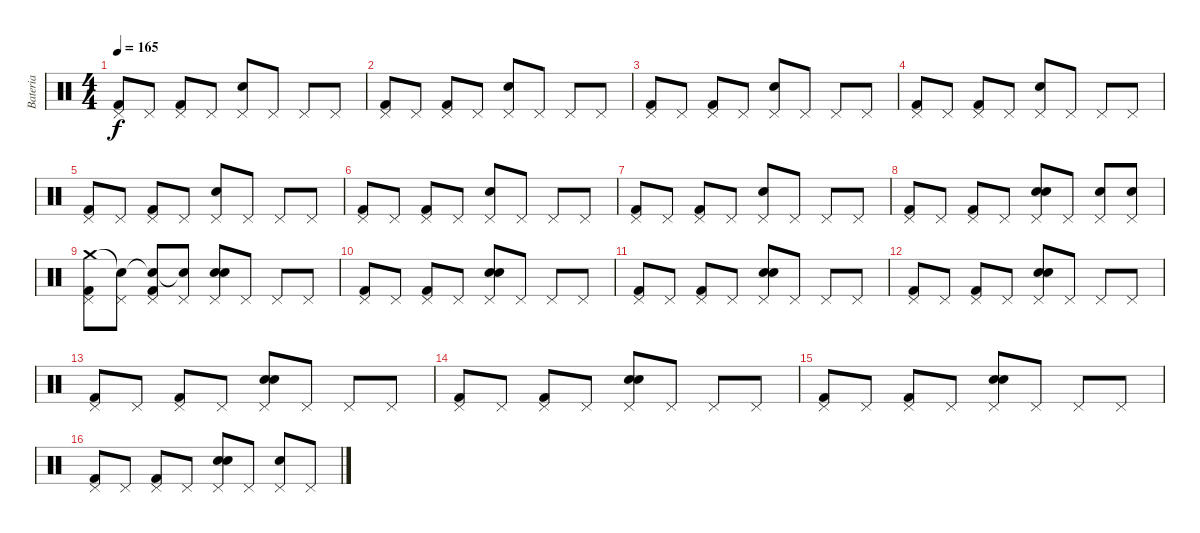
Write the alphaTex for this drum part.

\track ("Bateria" "Bateria") {instrument percussion}
\staff {score}
\articulation defaults
\ts (4 4)
\tempo 165
\clef neutral
\ks c
("Pedal Hi-Hat (hit)" "Kick (hit) 2").8{dy f} "Pedal Hi-Hat (hit)".8 ("Pedal Hi-Hat (hit)" "Kick (hit) 2").8 "Pedal Hi-Hat (hit)".8 ("Pedal Hi-Hat (hit)" "Electric Snare (hit)").8 "Pedal Hi-Hat (hit)".8 "Pedal Hi-Hat (hit)".8 "Pedal Hi-Hat (hit)".8 |
("Pedal Hi-Hat (hit)" "Kick (hit) 2").8 "Pedal Hi-Hat (hit)".8 ("Pedal Hi-Hat (hit)" "Kick (hit) 2").8 "Pedal Hi-Hat (hit)".8 ("Pedal Hi-Hat (hit)" "Electric Snare (hit)").8 "Pedal Hi-Hat (hit)".8 "Pedal Hi-Hat (hit)".8 "Pedal Hi-Hat (hit)".8 |
("Pedal Hi-Hat (hit)" "Kick (hit) 2").8 "Pedal Hi-Hat (hit)".8 ("Pedal Hi-Hat (hit)" "Kick (hit) 2").8 "Pedal Hi-Hat (hit)".8 ("Pedal Hi-Hat (hit)" "Electric Snare (hit)").8 "Pedal Hi-Hat (hit)".8 "Pedal Hi-Hat (hit)".8 "Pedal Hi-Hat (hit)".8 |
("Pedal Hi-Hat (hit)" "Kick (hit) 2").8 "Pedal Hi-Hat (hit)".8 ("Pedal Hi-Hat (hit)" "Kick (hit) 2").8 "Pedal Hi-Hat (hit)".8 ("Pedal Hi-Hat (hit)" "Electric Snare (hit)").8 "Pedal Hi-Hat (hit)".8 "Pedal Hi-Hat (hit)".8 "Pedal Hi-Hat (hit)".8 |
("Pedal Hi-Hat (hit)" "Kick (hit) 2").8 "Pedal Hi-Hat (hit)".8 ("Pedal Hi-Hat (hit)" "Kick (hit) 2").8 "Pedal Hi-Hat (hit)".8 ("Pedal Hi-Hat (hit)" "Electric Snare (hit)").8 "Pedal Hi-Hat (hit)".8 "Pedal Hi-Hat (hit)".8 "Pedal Hi-Hat (hit)".8 |
("Pedal Hi-Hat (hit)" "Kick (hit) 2").8 "Pedal Hi-Hat (hit)".8 ("Pedal Hi-Hat (hit)" "Kick (hit) 2").8 "Pedal Hi-Hat (hit)".8 ("Pedal Hi-Hat (hit)" "Electric Snare (hit)").8 "Pedal Hi-Hat (hit)".8 "Pedal Hi-Hat (hit)".8 "Pedal Hi-Hat (hit)".8 |
("Pedal Hi-Hat (hit)" "Kick (hit) 2").8 "Pedal Hi-Hat (hit)".8 ("Pedal Hi-Hat (hit)" "Kick (hit) 2").8 "Pedal Hi-Hat (hit)".8 ("Pedal Hi-Hat (hit)" "Electric Snare (hit)").8 "Pedal Hi-Hat (hit)".8 "Pedal Hi-Hat (hit)".8 "Pedal Hi-Hat (hit)".8 |
("Pedal Hi-Hat (hit)" "Kick (hit) 2").8 "Pedal Hi-Hat (hit)".8 ("Pedal Hi-Hat (hit)" "Kick (hit) 2").8 "Pedal Hi-Hat (hit)".8 ("Hand Clap (hit)" "Pedal Hi-Hat (hit)" "Electric Snare (hit)").8 "Pedal Hi-Hat (hit)".8 ("Hand Clap (hit)" "Pedal Hi-Hat (hit)").8 ("Hand Clap (hit)" "Pedal Hi-Hat (hit)").8 |
("Crash medium (hit)" "Pedal Hi-Hat (hit)" "Kick (hit) 2").8 ("Snare (hit)"{t} "Pedal Hi-Hat (hit)").8 ("Snare (hit)"{t} "Pedal Hi-Hat (hit)" "Kick (hit) 2").8 ("Snare (hit)"{t} "Pedal Hi-Hat (hit)").8 ("Hand Clap (hit)" "Pedal Hi-Hat (hit)" "Electric Snare (hit)").8 "Pedal Hi-Hat (hit)".8 "Pedal Hi-Hat (hit)".8 "Pedal Hi-Hat (hit)".8 |
("Pedal Hi-Hat (hit)" "Kick (hit) 2").8 "Pedal Hi-Hat (hit)".8 ("Pedal Hi-Hat (hit)" "Kick (hit) 2").8 "Pedal Hi-Hat (hit)".8 ("Hand Clap (hit)" "Pedal Hi-Hat (hit)" "Electric Snare (hit)").8 "Pedal Hi-Hat (hit)".8 "Pedal Hi-Hat (hit)".8 "Pedal Hi-Hat (hit)".8 |
("Pedal Hi-Hat (hit)" "Kick (hit) 2").8 "Pedal Hi-Hat (hit)".8 ("Pedal Hi-Hat (hit)" "Kick (hit) 2").8 "Pedal Hi-Hat (hit)".8 ("Hand Clap (hit)" "Pedal Hi-Hat (hit)" "Electric Snare (hit)").8 "Pedal Hi-Hat (hit)".8 "Pedal Hi-Hat (hit)".8 "Pedal Hi-Hat (hit)".8 |
("Pedal Hi-Hat (hit)" "Kick (hit) 2").8 "Pedal Hi-Hat (hit)".8 ("Pedal Hi-Hat (hit)" "Kick (hit) 2").8 "Pedal Hi-Hat (hit)".8 ("Hand Clap (hit)" "Pedal Hi-Hat (hit)" "Electric Snare (hit)").8 "Pedal Hi-Hat (hit)".8 "Pedal Hi-Hat (hit)".8 "Pedal Hi-Hat (hit)".8 |
("Pedal Hi-Hat (hit)" "Kick (hit) 2").8 "Pedal Hi-Hat (hit)".8 ("Pedal Hi-Hat (hit)" "Kick (hit) 2").8 "Pedal Hi-Hat (hit)".8 ("Hand Clap (hit)" "Pedal Hi-Hat (hit)" "Electric Snare (hit)").8 "Pedal Hi-Hat (hit)".8 "Pedal Hi-Hat (hit)".8 "Pedal Hi-Hat (hit)".8 |
("Pedal Hi-Hat (hit)" "Kick (hit) 2").8 "Pedal Hi-Hat (hit)".8 ("Pedal Hi-Hat (hit)" "Kick (hit) 2").8 "Pedal Hi-Hat (hit)".8 ("Hand Clap (hit)" "Pedal Hi-Hat (hit)" "Electric Snare (hit)").8 "Pedal Hi-Hat (hit)".8 "Pedal Hi-Hat (hit)".8 "Pedal Hi-Hat (hit)".8 |
("Pedal Hi-Hat (hit)" "Kick (hit) 2").8 "Pedal Hi-Hat (hit)".8 ("Pedal Hi-Hat (hit)" "Kick (hit) 2").8 "Pedal Hi-Hat (hit)".8 ("Hand Clap (hit)" "Pedal Hi-Hat (hit)" "Electric Snare (hit)").8 "Pedal Hi-Hat (hit)".8 "Pedal Hi-Hat (hit)".8 "Pedal Hi-Hat (hit)".8 |
("Pedal Hi-Hat (hit)" "Kick (hit) 2").8 "Pedal Hi-Hat (hit)".8 ("Pedal Hi-Hat (hit)" "Kick (hit) 2").8 "Pedal Hi-Hat (hit)".8 ("Hand Clap (hit)" "Pedal Hi-Hat (hit)" "Electric Snare (hit)").8 "Pedal Hi-Hat (hit)".8 ("Hand Clap (hit)" "Pedal Hi-Hat (hit)").8 "Pedal Hi-Hat (hit)".8
